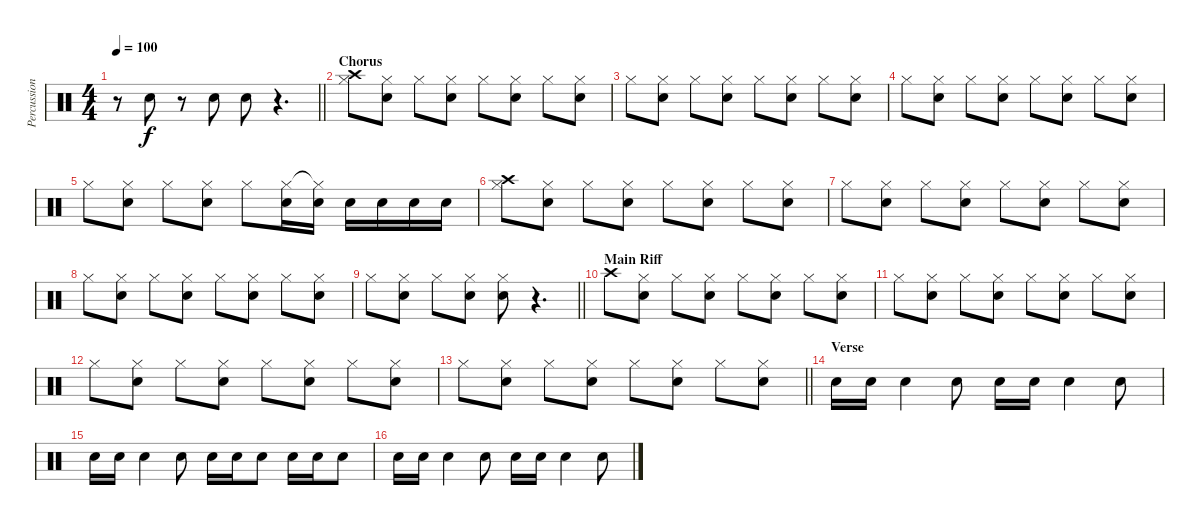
\track ("Percussion" "Percussion") {instrument percussion}
\staff {score}
\articulation defaults
\ts (4 4)
\tempo 100
\clef neutral
\barLineRight lightlight
\ks c
r.8{dy f} "Snare (hit) 2".8 r.8 "Snare (hit) 2".8 "Snare (hit) 2".8 r.4{d} |
\section ("" "Chorus")
("Hi-Hat (closed)" "Crash high (hit)").8 ("Hi-Hat (closed)" "Snare (hit) 2").8 "Hi-Hat (closed)".8 ("Hi-Hat (closed)" "Snare (hit) 2").8 "Hi-Hat (closed)".8 ("Hi-Hat (closed)" "Snare (hit) 2").8 "Hi-Hat (closed)".8 ("Hi-Hat (closed)" "Snare (hit) 2").8 |
"Hi-Hat (closed)".8 ("Hi-Hat (closed)" "Snare (hit) 2").8 "Hi-Hat (closed)".8 ("Hi-Hat (closed)" "Snare (hit) 2").8 "Hi-Hat (closed)".8 ("Hi-Hat (closed)" "Snare (hit) 2").8 "Hi-Hat (closed)".8 ("Hi-Hat (closed)" "Snare (hit) 2").8 |
"Hi-Hat (closed)".8 ("Hi-Hat (closed)" "Snare (hit) 2").8 "Hi-Hat (closed)".8 ("Hi-Hat (closed)" "Snare (hit) 2").8 "Hi-Hat (closed)".8 ("Hi-Hat (closed)" "Snare (hit) 2").8 "Hi-Hat (closed)".8 ("Hi-Hat (closed)" "Snare (hit) 2").8 |
"Hi-Hat (closed)".8 ("Hi-Hat (closed)" "Snare (hit) 2").8 "Hi-Hat (closed)".8 ("Hi-Hat (closed)" "Snare (hit) 2").8 "Hi-Hat (closed)".8 ("Hi-Hat (closed)" "Snare (hit) 2").16 ("Hi-Hat (closed)"{t} "Snare (hit) 2").16 "Snare (hit) 2".16 "Snare (hit) 2".16 "Snare (hit) 2".16 "Snare (hit) 2".16 |
("Hi-Hat (closed)" "Crash high (hit)").8 ("Hi-Hat (closed)" "Snare (hit) 2").8 "Hi-Hat (closed)".8 ("Hi-Hat (closed)" "Snare (hit) 2").8 "Hi-Hat (closed)".8 ("Hi-Hat (closed)" "Snare (hit) 2").8 "Hi-Hat (closed)".8 ("Hi-Hat (closed)" "Snare (hit) 2").8 |
"Hi-Hat (closed)".8 ("Hi-Hat (closed)" "Snare (hit) 2").8 "Hi-Hat (closed)".8 ("Hi-Hat (closed)" "Snare (hit) 2").8 "Hi-Hat (closed)".8 ("Hi-Hat (closed)" "Snare (hit) 2").8 "Hi-Hat (closed)".8 ("Hi-Hat (closed)" "Snare (hit) 2").8 |
"Hi-Hat (closed)".8 ("Hi-Hat (closed)" "Snare (hit) 2").8 "Hi-Hat (closed)".8 ("Hi-Hat (closed)" "Snare (hit) 2").8 "Hi-Hat (closed)".8 ("Hi-Hat (closed)" "Snare (hit) 2").8 "Hi-Hat (closed)".8 ("Hi-Hat (closed)" "Snare (hit) 2").8 |
\barLineRight lightlight "Hi-Hat (closed)".8
("Hi-Hat (closed)" "Snare (hit) 2").8 "Hi-Hat (closed)".8 ("Hi-Hat (closed)" "Snare (hit) 2").8 ("Hi-Hat (closed)" "Snare (hit) 2").8 r.4{d} |
\section ("" "Main Riff")
"Crash high (hit)".8 ("Hi-Hat (closed)" "Snare (hit) 2").8 "Hi-Hat (closed)".8 ("Hi-Hat (closed)" "Snare (hit) 2").8 "Hi-Hat (closed)".8 ("Hi-Hat (closed)" "Snare (hit) 2").8 "Hi-Hat (closed)".8 ("Hi-Hat (closed)" "Snare (hit) 2").8 |
"Hi-Hat (closed)".8 ("Hi-Hat (closed)" "Snare (hit) 2").8 "Hi-Hat (closed)".8 ("Hi-Hat (closed)" "Snare (hit) 2").8 "Hi-Hat (closed)".8 ("Hi-Hat (closed)" "Snare (hit) 2").8 "Hi-Hat (closed)".8 ("Hi-Hat (closed)" "Snare (hit) 2").8 |
"Hi-Hat (closed)".8 ("Hi-Hat (closed)" "Snare (hit) 2").8 "Hi-Hat (closed)".8 ("Hi-Hat (closed)" "Snare (hit) 2").8 "Hi-Hat (closed)".8 ("Hi-Hat (closed)" "Snare (hit) 2").8 "Hi-Hat (closed)".8 ("Hi-Hat (closed)" "Snare (hit) 2").8 |
\barLineRight lightlight "Hi-Hat (closed)".8
("Hi-Hat (closed)" "Snare (hit) 2").8 "Hi-Hat (closed)".8 ("Hi-Hat (closed)" "Snare (hit) 2").8 "Hi-Hat (closed)".8 ("Hi-Hat (closed)" "Snare (hit) 2").8 "Hi-Hat (closed)".8 ("Hi-Hat (closed)" "Snare (hit) 2").8 |
\section ("" "Verse")
"Snare (hit) 2".16 "Snare (hit) 2".16 "Snare (hit) 2".4 "Snare (hit) 2".8 "Snare (hit) 2".16 "Snare (hit) 2".16 "Snare (hit) 2".4 "Snare (hit) 2".8 |
"Snare (hit) 2".16 "Snare (hit) 2".16 "Snare (hit) 2".4 "Snare (hit) 2".8 "Snare (hit) 2".16 "Snare (hit) 2".16 "Snare (hit) 2".8 "Snare (hit) 2".16 "Snare (hit) 2".16 "Snare (hit) 2".8 |
"Snare (hit) 2".16 "Snare (hit) 2".16 "Snare (hit) 2".4 "Snare (hit) 2".8 "Snare (hit) 2".16 "Snare (hit) 2".16 "Snare (hit) 2".4 "Snare (hit) 2".8
